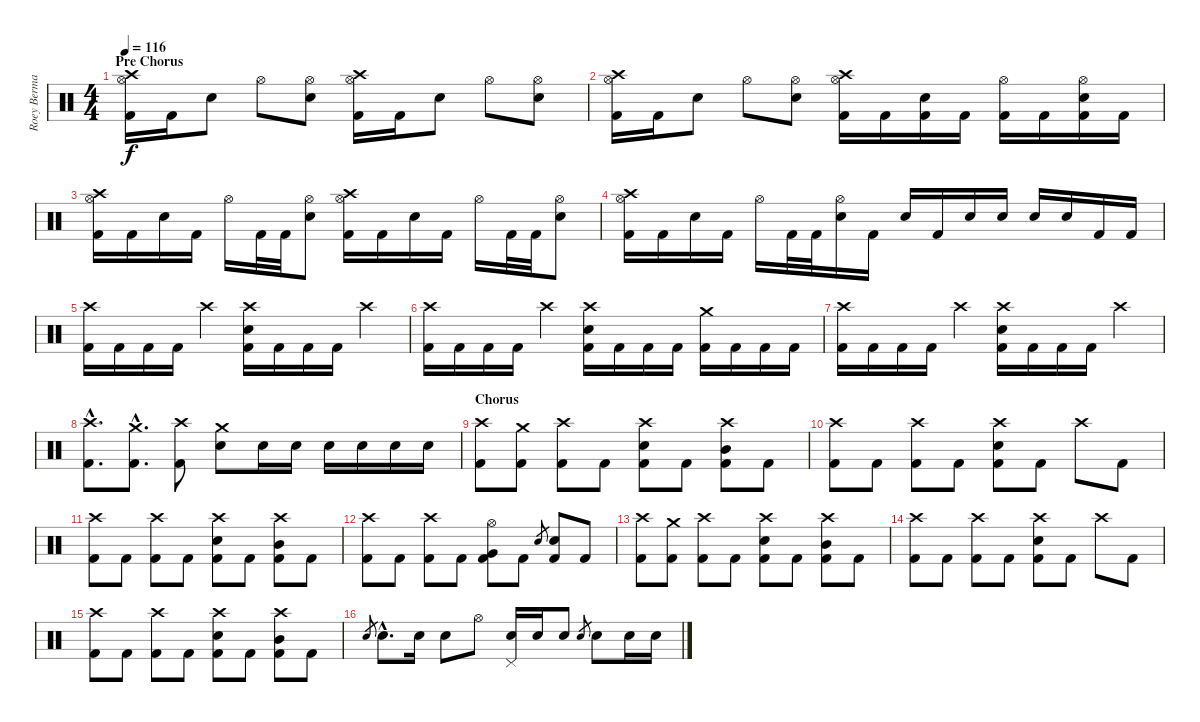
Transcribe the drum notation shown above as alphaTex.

\track ("Roey Berman" "Roey Berma") {instrument percussion}
\staff {score}
\articulation defaults
\ts (4 4)
\section ("" "Pre Chorus")
\tempo 116
\clef neutral
\ks c
("Crash high (hit)" "Hi-Hat (open)" "Kick (hit) 2").16{dy f} "Kick (hit) 2".16 "Electric Snare (hit)".8 "Hi-Hat (open)".8 ("Hi-Hat (open)" "Electric Snare (hit)").8 ("Crash high (hit)" "Hi-Hat (open)" "Kick (hit) 2").16 "Kick (hit) 2".16 "Electric Snare (hit)".8 "Hi-Hat (open)".8 ("Hi-Hat (open)" "Electric Snare (hit)").8 |
("Crash high (hit)" "Hi-Hat (open)" "Kick (hit) 2").16 "Kick (hit) 2".16 "Electric Snare (hit)".8 "Hi-Hat (open)".8 ("Hi-Hat (open)" "Electric Snare (hit)").8 ("Crash high (hit)" "Hi-Hat (open)" "Kick (hit) 2").16 "Kick (hit) 2".16 ("Electric Snare (hit)" "Kick (hit) 2").16 "Kick (hit) 2".16 ("Hi-Hat (open)" "Kick (hit) 2").16 "Kick (hit) 2".16 ("Hi-Hat (open)" "Electric Snare (hit)" "Kick (hit) 2").16 "Kick (hit) 2".16 |
("Crash high (hit)" "Hi-Hat (open)" "Kick (hit) 2").16 "Kick (hit) 2".16 "Electric Snare (hit)".16 "Kick (hit) 2".16 "Hi-Hat (open)".16 "Kick (hit) 2".32 "Kick (hit) 2".32 ("Hi-Hat (open)" "Electric Snare (hit)").8 ("Crash high (hit)" "Hi-Hat (open)" "Kick (hit) 2").16 "Kick (hit) 2".16 "Electric Snare (hit)".16 "Kick (hit) 2".16 "Hi-Hat (open)".16 "Kick (hit) 2".32 "Kick (hit) 2".32 ("Hi-Hat (open)" "Electric Snare (hit)").8 |
("Crash high (hit)" "Hi-Hat (open)" "Kick (hit) 2").16 "Kick (hit) 2".16 "Electric Snare (hit)".16 "Kick (hit) 2".16 "Hi-Hat (open)".16 "Kick (hit) 2".32 "Kick (hit) 2".32 ("Hi-Hat (open)" "Electric Snare (hit)").16 "Kick (hit) 2".16 "Electric Snare (hit)".16 "Kick (hit) 2".16 "Electric Snare (hit)".16 "Electric Snare (hit)".16 "Electric Snare (hit)".16 "Electric Snare (hit)".16 "Kick (hit) 2".16 "Kick (hit) 2".16 |
("Crash high (hit)" "Kick (hit) 2").16 "Kick (hit) 2".16 "Kick (hit) 2".16 "Kick (hit) 2".16 "Crash high (hit)".4 ("Crash high (hit)" "Electric Snare (hit)" "Kick (hit) 2").16 "Kick (hit) 2".16 "Kick (hit) 2".16 "Kick (hit) 2".16 "Crash high (hit)".4 |
("Crash high (hit)" "Kick (hit) 2").16 "Kick (hit) 2".16 "Kick (hit) 2".16 "Kick (hit) 2".16 "Crash high (hit)".4 ("Crash high (hit)" "Electric Snare (hit)" "Kick (hit) 2").16 "Kick (hit) 2".16 "Kick (hit) 2".16 "Kick (hit) 2".16 ("Crash medium (hit)" "Kick (hit) 2").16 "Kick (hit) 2".16 "Kick (hit) 2".16 "Kick (hit) 2".16 |
("Crash high (hit)" "Kick (hit) 2").16 "Kick (hit) 2".16 "Kick (hit) 2".16 "Kick (hit) 2".16 "Crash high (hit)".4 ("Crash high (hit)" "Electric Snare (hit)" "Kick (hit) 2").16 "Kick (hit) 2".16 "Kick (hit) 2".16 "Kick (hit) 2".16 "Crash high (hit)".4 |
("Crash high (hit)"{hac} "Kick (hit) 2"{hac}).8{d} ("Crash medium (hit)"{hac} "Kick (hit) 2"{hac}).8{d} ("Crash high (hit)" "Kick (hit) 2").8 ("Crash medium (hit)" "Electric Snare (hit)").8 "Electric Snare (hit)".16 "Electric Snare (hit)".16 "Electric Snare (hit)".16 "Electric Snare (hit)".16 "Electric Snare (hit)".16 "Electric Snare (hit)".16 |
\section ("" "Chorus")
("Crash high (hit)" "Kick (hit) 2").8 ("Crash medium (hit)" "Kick (hit) 2").8 ("Crash high (hit)" "Kick (hit) 2").8 "Kick (hit) 2".8 ("Crash high (hit)" "Electric Snare (hit)" "Kick (hit) 2").8 "Kick (hit) 2".8 ("Crash high (hit)" "Mid Tom (hit)" "Kick (hit) 2").8 "Kick (hit) 2".8 |
("Crash high (hit)" "Kick (hit) 2").8 "Kick (hit) 2".8 ("Crash high (hit)" "Kick (hit) 2").8 "Kick (hit) 2".8 ("Crash high (hit)" "Electric Snare (hit)" "Kick (hit) 2").8 "Kick (hit) 2".8 "Crash high (hit)".8 "Kick (hit) 2".8 |
("Crash high (hit)" "Kick (hit) 2").8 "Kick (hit) 2".8 ("Crash high (hit)" "Kick (hit) 2").8 "Kick (hit) 2".8 ("Crash high (hit)" "Electric Snare (hit)" "Kick (hit) 2").8 "Kick (hit) 2".8 ("Crash high (hit)" "Mid Tom (hit)" "Kick (hit) 2").8 "Kick (hit) 2".8 |
("Crash high (hit)" "Kick (hit) 2").8 "Kick (hit) 2".8 ("Crash high (hit)" "Kick (hit) 2").8 "Kick (hit) 2".8 ("Hi-Hat (open)" "Very Low Tom (hit)" "Kick (hit) 2").8 "Kick (hit) 2".8 "Electric Snare (hit)".8{gr} ("Electric Snare (hit)" "Kick (hit) 2").8 "Kick (hit) 2".8 |
("Crash high (hit)" "Kick (hit) 2").8 ("Crash medium (hit)" "Kick (hit) 2").8 ("Crash high (hit)" "Kick (hit) 2").8 "Kick (hit) 2".8 ("Crash high (hit)" "Electric Snare (hit)" "Kick (hit) 2").8 "Kick (hit) 2".8 ("Crash high (hit)" "Mid Tom (hit)" "Kick (hit) 2").8 "Kick (hit) 2".8 |
("Crash high (hit)" "Kick (hit) 2").8 "Kick (hit) 2".8 ("Crash high (hit)" "Kick (hit) 2").8 "Kick (hit) 2".8 ("Crash high (hit)" "Electric Snare (hit)" "Kick (hit) 2").8 "Kick (hit) 2".8 "Crash high (hit)".8 "Kick (hit) 2".8 |
("Crash high (hit)" "Kick (hit) 2").8 "Kick (hit) 2".8 ("Crash high (hit)" "Kick (hit) 2").8 "Kick (hit) 2".8 ("Crash high (hit)" "Electric Snare (hit)" "Kick (hit) 2").8 "Kick (hit) 2".8 ("Crash high (hit)" "Mid Tom (hit)" "Kick (hit) 2").8 "Kick (hit) 2".8 |
"Electric Snare (hit)".8{gr} "Electric Snare (hit)"{hac}.8{d} "Electric Snare (hit)".16 "Electric Snare (hit)".8 "Hi-Hat (open)".8 ("Pedal Hi-Hat (hit)" "Electric Snare (hit)").16 "Electric Snare (hit)".16 "Electric Snare (hit)".8 "Electric Snare (hit)".8{gr} "Electric Snare (hit)".8 "Electric Snare (hit)".16 "Electric Snare (hit)".16
